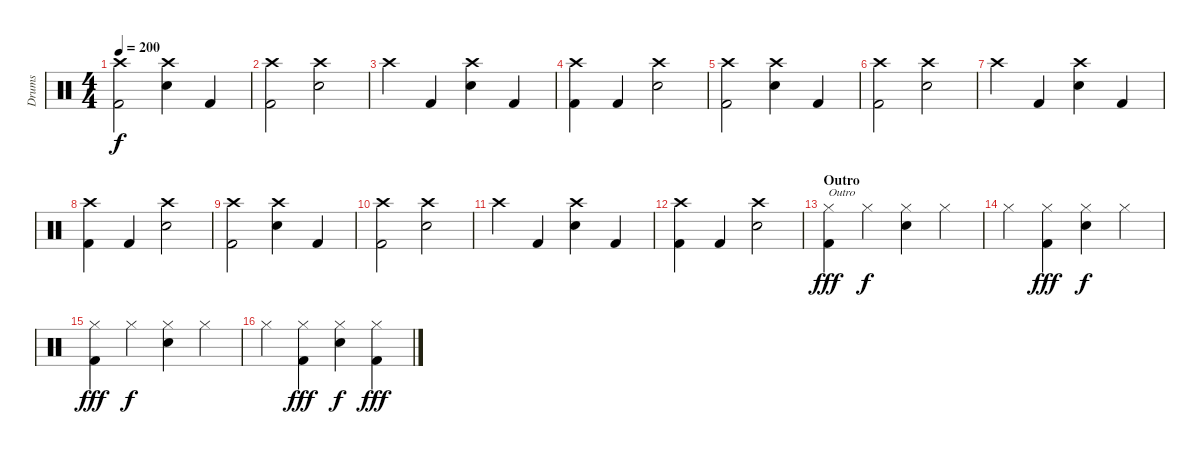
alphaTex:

\track ("Drums" "Drums") {instrument percussion}
\staff {score}
\articulation defaults
\ts (4 4)
\tempo 200
\clef neutral
\ks c
("Crash high (hit)" "Kick (hit) 2").2{dy f} ("Crash high (hit)" "Electric Snare (hit)").4 "Kick (hit) 2".4 |
("Crash high (hit)" "Kick (hit) 2").2 ("Crash high (hit)" "Electric Snare (hit)").2 |
"Crash high (hit)".4 "Kick (hit) 2".4 ("Crash high (hit)" "Electric Snare (hit)").4 "Kick (hit) 2".4 |
("Crash high (hit)" "Kick (hit) 2").4 "Kick (hit) 2".4 ("Crash high (hit)" "Electric Snare (hit)").2 |
("Crash high (hit)" "Kick (hit) 2").2 ("Crash high (hit)" "Electric Snare (hit)").4 "Kick (hit) 2".4 |
("Crash high (hit)" "Kick (hit) 2").2 ("Crash high (hit)" "Electric Snare (hit)").2 |
"Crash high (hit)".4 "Kick (hit) 2".4 ("Crash high (hit)" "Electric Snare (hit)").4 "Kick (hit) 2".4 |
("Crash high (hit)" "Kick (hit) 2").4 "Kick (hit) 2".4 ("Crash high (hit)" "Electric Snare (hit)").2 |
("Crash high (hit)" "Kick (hit) 2").2 ("Crash high (hit)" "Electric Snare (hit)").4 "Kick (hit) 2".4 |
("Crash high (hit)" "Kick (hit) 2").2 ("Crash high (hit)" "Electric Snare (hit)").2 |
"Crash high (hit)".4 "Kick (hit) 2".4 ("Crash high (hit)" "Electric Snare (hit)").4 "Kick (hit) 2".4 |
("Crash high (hit)" "Kick (hit) 2").4 "Kick (hit) 2".4 ("Crash high (hit)" "Electric Snare (hit)").2 |
\section ("" "Outro")
("Hi-Hat (closed)" "Kick (hit) 2").4{txt "Outro" dy fff} "Hi-Hat (closed)".4{dy f} ("Hi-Hat (closed)" "Electric Snare (hit)").4 "Hi-Hat (closed)".4 |
"Hi-Hat (closed)".4 ("Hi-Hat (closed)" "Kick (hit) 2").4{dy fff} ("Hi-Hat (closed)" "Electric Snare (hit)").4{dy f} "Hi-Hat (closed)".4 |
("Hi-Hat (closed)" "Kick (hit) 2").4{dy fff} "Hi-Hat (closed)".4{dy f} ("Hi-Hat (closed)" "Electric Snare (hit)").4 "Hi-Hat (closed)".4 |
"Hi-Hat (closed)".4 ("Hi-Hat (closed)" "Kick (hit) 2").4{dy fff} ("Hi-Hat (closed)" "Electric Snare (hit)").4{dy f} ("Hi-Hat (closed)" "Kick (hit) 2").4{dy fff}
